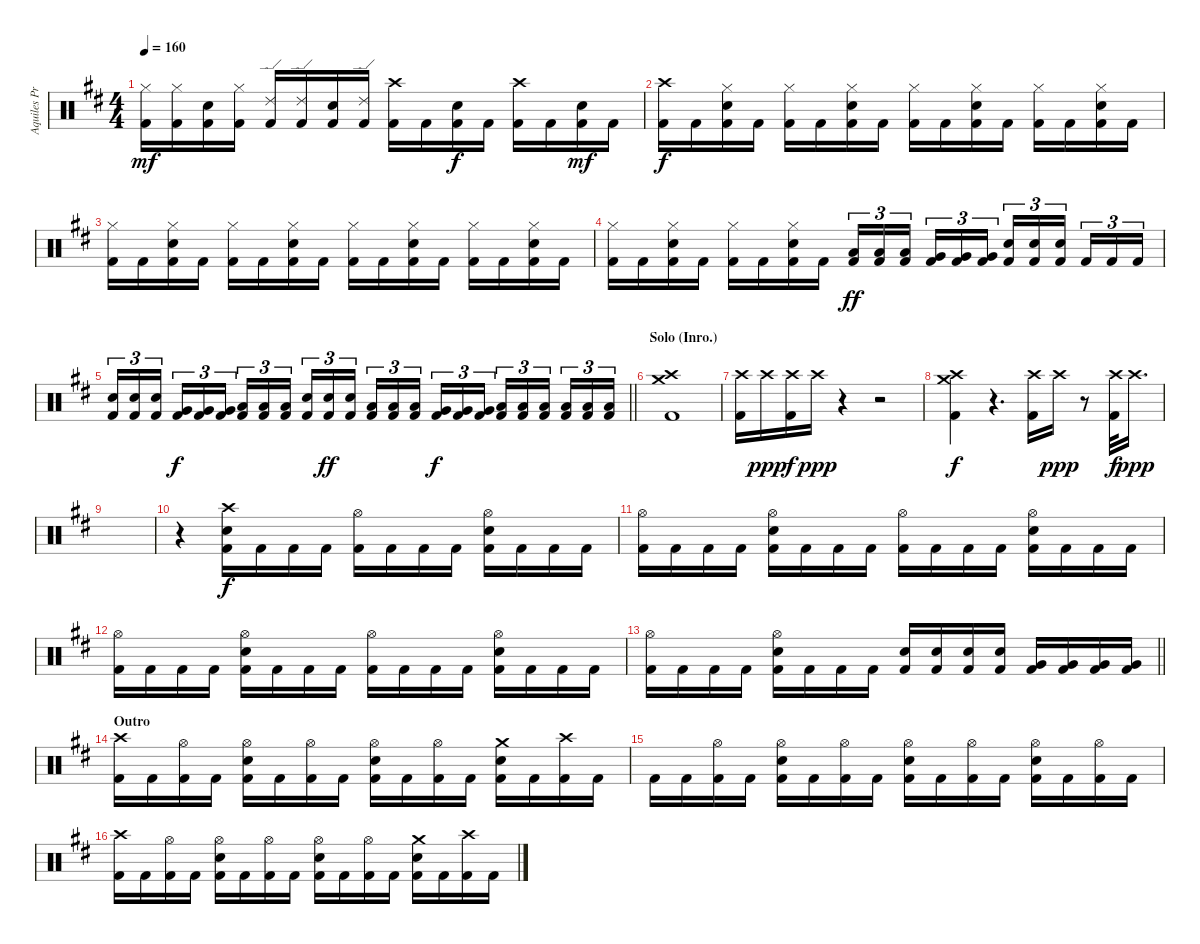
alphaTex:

\track ("Aquiles Priester" "Aquiles Pr") {instrument percussion}
\staff {score}
\articulation defaults
\ts (4 4)
\tempo 160
\clef neutral
\ks d
("Hi-Hat (closed)" "Kick (hit) 2").16{dy mf} ("Hi-Hat (closed)" "Kick (hit) 2").16 ("Electric Snare (hit)" "Kick (hit) 2").16 ("Hi-Hat (closed)" "Kick (hit) 2").16 ("Ride (edge) 2" "Kick (hit) 2").16 ("Ride (edge) 2" "Kick (hit) 2").16 ("Electric Snare (hit)" "Kick (hit) 2").16 ("Ride (edge) 2" "Kick (hit) 2").16 ("Crash high (hit)" "Kick (hit) 2").16 "Kick (hit) 2".16 ("Electric Snare (hit)" "Kick (hit) 2").16{dy f} "Kick (hit) 2".16 ("Crash high (hit)" "Kick (hit) 2").16 "Kick (hit) 2".16 ("Electric Snare (hit)" "Kick (hit) 2").16{dy mf} "Kick (hit) 2".16 |
("Crash high (hit)" "Kick (hit) 2").16{dy f} "Kick (hit) 2".16 ("Hi-Hat (closed)" "Electric Snare (hit)" "Kick (hit) 2").16 "Kick (hit) 2".16 ("Hi-Hat (closed)" "Kick (hit) 2").16 "Kick (hit) 2".16 ("Hi-Hat (closed)" "Electric Snare (hit)" "Kick (hit) 2").16 "Kick (hit) 2".16 ("Hi-Hat (closed)" "Kick (hit) 2").16 "Kick (hit) 2".16 ("Hi-Hat (closed)" "Electric Snare (hit)" "Kick (hit) 2").16 "Kick (hit) 2".16 ("Hi-Hat (closed)" "Kick (hit) 2").16 "Kick (hit) 2".16 ("Hi-Hat (closed)" "Electric Snare (hit)" "Kick (hit) 2").16 "Kick (hit) 2".16 |
("Hi-Hat (closed)" "Kick (hit) 2").16 "Kick (hit) 2".16 ("Hi-Hat (closed)" "Electric Snare (hit)" "Kick (hit) 2").16 "Kick (hit) 2".16 ("Hi-Hat (closed)" "Kick (hit) 2").16 "Kick (hit) 2".16 ("Hi-Hat (closed)" "Electric Snare (hit)" "Kick (hit) 2").16 "Kick (hit) 2".16 ("Hi-Hat (closed)" "Kick (hit) 2").16 "Kick (hit) 2".16 ("Hi-Hat (closed)" "Electric Snare (hit)" "Kick (hit) 2").16 "Kick (hit) 2".16 ("Hi-Hat (closed)" "Kick (hit) 2").16 "Kick (hit) 2".16 ("Hi-Hat (closed)" "Electric Snare (hit)" "Kick (hit) 2").16 "Kick (hit) 2".16 |
("Hi-Hat (closed)" "Kick (hit) 2").16 "Kick (hit) 2".16 ("Hi-Hat (closed)" "Electric Snare (hit)" "Kick (hit) 2").16 "Kick (hit) 2".16 ("Hi-Hat (closed)" "Kick (hit) 2").16 "Kick (hit) 2".16 ("Hi-Hat (closed)" "Electric Snare (hit)" "Kick (hit) 2").16 "Kick (hit) 2".16 ("Low Tom (hit)" "Kick (hit) 2").16{tu (3 2) dy ff} ("Low Tom (hit)" "Kick (hit) 2").16{tu (3 2)} ("Low Tom (hit)" "Kick (hit) 2").16{tu (3 2) beam splitsecondary} ("Very Low Tom (hit)" "Kick (hit) 2").16{tu (3 2)} ("Very Low Tom (hit)" "Kick (hit) 2").16{tu (3 2)} ("Very Low Tom (hit)" "Kick (hit) 2").16{tu (3 2)} ("Electric Snare (hit)" "Kick (hit) 2").16{tu (3 2)} ("Electric Snare (hit)" "Kick (hit) 2").16{tu (3 2)} ("Electric Snare (hit)" "Kick (hit) 2").16{tu (3 2) beam splitsecondary} "Kick (hit) 2".16{tu (3 2)} "Kick (hit) 2".16{tu (3 2)} "Kick (hit) 2".16{tu (3 2)} |
\barLineRight lightlight
("Electric Snare (hit)" "Kick (hit) 2").16{tu (3 2)} ("Electric Snare (hit)" "Kick (hit) 2").16{tu (3 2)} ("Electric Snare (hit)" "Kick (hit) 2").16{tu (3 2) beam splitsecondary} ("Very Low Tom (hit)" "Kick (hit) 2").16{tu (3 2) dy f} ("Very Low Tom (hit)" "Kick (hit) 2").16{tu (3 2)} ("Very Low Tom (hit)" "Kick (hit) 2").16{tu (3 2)} ("Low Floor Tom (hit)" "Kick (hit) 2").16{tu (3 2)} ("Low Floor Tom (hit)" "Kick (hit) 2").16{tu (3 2)} ("Low Floor Tom (hit)" "Kick (hit) 2").16{tu (3 2) beam splitsecondary} ("Electric Snare (hit)" "Kick (hit) 2").16{tu (3 2)} ("Electric Snare (hit)" "Kick (hit) 2").16{tu (3 2) dy ff} ("Electric Snare (hit)" "Kick (hit) 2").16{tu (3 2)} ("Low Tom (hit)" "Kick (hit) 2").16{tu (3 2)} ("Low Tom (hit)" "Kick (hit) 2").16{tu (3 2)} ("Low Tom (hit)" "Kick (hit) 2").16{tu (3 2) beam splitsecondary} ("Very Low Tom (hit)" "Kick (hit) 2").16{tu (3 2) dy f} ("Very Low Tom (hit)" "Kick (hit) 2").16{tu (3 2)} ("Very Low Tom (hit)" "Kick (hit) 2").16{tu (3 2)} ("Low Tom (hit)" "Kick (hit) 2").16{tu (3 2)} ("Low Tom (hit)" "Kick (hit) 2").16{tu (3 2)} ("Low Tom (hit)" "Kick (hit) 2").16{tu (3 2) beam splitsecondary} ("Low Floor Tom (hit)" "Kick (hit) 2").16{tu (3 2)} ("Low Floor Tom (hit)" "Kick (hit) 2").16{tu (3 2)} ("Low Floor Tom (hit)" "Kick (hit) 2").16{tu (3 2)} |
\section ("" "Solo (Inro.)")
("Crash high (hit)" "Crash medium (hit)" "Kick (hit) 2").1 |
("Crash high (hit)" "Kick (hit) 2").16 "Crash high (hit)".16{dy ppp} ("Crash high (hit)" "Kick (hit) 2").16{dy f} "Crash high (hit)".16{dy ppp} r.4 r.2 |
("Crash high (hit)" "Crash medium (hit)" "Kick (hit) 2").4{dy f} r.4{d} ("Crash high (hit)" "Kick (hit) 2").16 "Crash high (hit)".16{dy ppp} r.8 ("Crash high (hit)" "Kick (hit) 2").32{dy f} "Crash high (hit)".16{d dy ppp} |
|
r.4 ("Crash high (hit)" "Electric Snare (hit)" "Kick (hit) 2").16{dy f} "Kick (hit) 2".16 "Kick (hit) 2".16 "Kick (hit) 2".16 ("Hi-Hat (open)" "Kick (hit) 2").16 "Kick (hit) 2".16 "Kick (hit) 2".16 "Kick (hit) 2".16 ("Hi-Hat (open)" "Electric Snare (hit)" "Kick (hit) 2").16 "Kick (hit) 2".16 "Kick (hit) 2".16 "Kick (hit) 2".16 |
("Hi-Hat (open)" "Kick (hit) 2").16 "Kick (hit) 2".16 "Kick (hit) 2".16 "Kick (hit) 2".16 ("Hi-Hat (open)" "Electric Snare (hit)" "Kick (hit) 2").16 "Kick (hit) 2".16 "Kick (hit) 2".16 "Kick (hit) 2".16 ("Hi-Hat (open)" "Kick (hit) 2").16 "Kick (hit) 2".16 "Kick (hit) 2".16 "Kick (hit) 2".16 ("Hi-Hat (open)" "Electric Snare (hit)" "Kick (hit) 2").16 "Kick (hit) 2".16 "Kick (hit) 2".16 "Kick (hit) 2".16 |
("Hi-Hat (open)" "Kick (hit) 2").16 "Kick (hit) 2".16 "Kick (hit) 2".16 "Kick (hit) 2".16 ("Hi-Hat (open)" "Electric Snare (hit)" "Kick (hit) 2").16 "Kick (hit) 2".16 "Kick (hit) 2".16 "Kick (hit) 2".16 ("Hi-Hat (open)" "Kick (hit) 2").16 "Kick (hit) 2".16 "Kick (hit) 2".16 "Kick (hit) 2".16 ("Hi-Hat (open)" "Electric Snare (hit)" "Kick (hit) 2").16 "Kick (hit) 2".16 "Kick (hit) 2".16 "Kick (hit) 2".16 |
\barLineRight lightlight
("Hi-Hat (open)" "Kick (hit) 2").16 "Kick (hit) 2".16 "Kick (hit) 2".16 "Kick (hit) 2".16 ("Hi-Hat (open)" "Electric Snare (hit)" "Kick (hit) 2").16 "Kick (hit) 2".16 "Kick (hit) 2".16 "Kick (hit) 2".16 ("Electric Snare (hit)" "Kick (hit) 2").16 ("Electric Snare (hit)" "Kick (hit) 2").16 ("Electric Snare (hit)" "Kick (hit) 2").16 ("Electric Snare (hit)" "Kick (hit) 2").16 ("Very Low Tom (hit)" "Kick (hit) 2").16 ("Very Low Tom (hit)" "Kick (hit) 2").16 ("Very Low Tom (hit)" "Kick (hit) 2").16 ("Very Low Tom (hit)" "Kick (hit) 2").16 |
\section ("" "Outro")
("Crash high (hit)" "Kick (hit) 2").16 "Kick (hit) 2".16 ("Hi-Hat (open)" "Kick (hit) 2").16 "Kick (hit) 2".16 ("Hi-Hat (open)" "Electric Snare (hit)" "Kick (hit) 2").16 "Kick (hit) 2".16 ("Hi-Hat (open)" "Kick (hit) 2").16 "Kick (hit) 2".16 ("Hi-Hat (open)" "Electric Snare (hit)" "Kick (hit) 2").16 "Kick (hit) 2".16 ("Hi-Hat (open)" "Kick (hit) 2").16 "Kick (hit) 2".16 ("Crash medium (hit)" "Electric Snare (hit)" "Kick (hit) 2").16 "Kick (hit) 2".16 ("Crash high (hit)" "Kick (hit) 2").16 "Kick (hit) 2".16 |
"Kick (hit) 2".16 "Kick (hit) 2".16 ("Hi-Hat (open)" "Kick (hit) 2").16 "Kick (hit) 2".16 ("Hi-Hat (open)" "Electric Snare (hit)" "Kick (hit) 2").16 "Kick (hit) 2".16 ("Hi-Hat (open)" "Kick (hit) 2").16 "Kick (hit) 2".16 ("Hi-Hat (open)" "Electric Snare (hit)" "Kick (hit) 2").16 "Kick (hit) 2".16 ("Hi-Hat (open)" "Kick (hit) 2").16 "Kick (hit) 2".16 ("Hi-Hat (open)" "Electric Snare (hit)" "Kick (hit) 2").16 "Kick (hit) 2".16 ("Hi-Hat (open)" "Kick (hit) 2").16 "Kick (hit) 2".16 |
("Crash high (hit)" "Kick (hit) 2").16 "Kick (hit) 2".16 ("Hi-Hat (open)" "Kick (hit) 2").16 "Kick (hit) 2".16 ("Hi-Hat (open)" "Electric Snare (hit)" "Kick (hit) 2").16 "Kick (hit) 2".16 ("Hi-Hat (open)" "Kick (hit) 2").16 "Kick (hit) 2".16 ("Hi-Hat (open)" "Electric Snare (hit)" "Kick (hit) 2").16 "Kick (hit) 2".16 ("Hi-Hat (open)" "Kick (hit) 2").16 "Kick (hit) 2".16 ("Crash medium (hit)" "Electric Snare (hit)" "Kick (hit) 2").16 "Kick (hit) 2".16 ("Crash high (hit)" "Kick (hit) 2").16 "Kick (hit) 2".16
